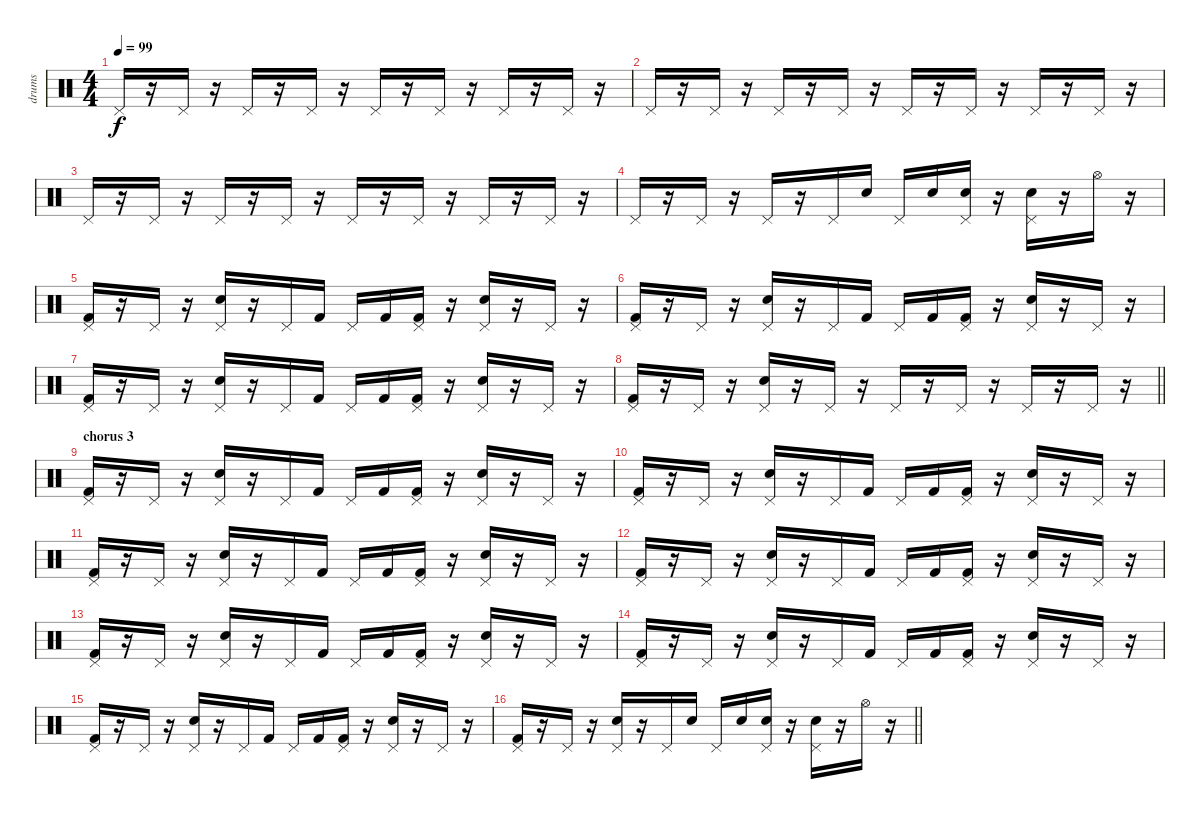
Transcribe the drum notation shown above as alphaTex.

\track ("drums" "drums") {instrument percussion}
\staff {score}
\articulation defaults
\ts (4 4)
\tempo 99
\clef neutral
\ks c "Pedal Hi-Hat (hit)".16{dy f}
r.16 "Pedal Hi-Hat (hit)".16 r.16 "Pedal Hi-Hat (hit)".16 r.16 "Pedal Hi-Hat (hit)".16 r.16 "Pedal Hi-Hat (hit)".16 r.16 "Pedal Hi-Hat (hit)".16 r.16 "Pedal Hi-Hat (hit)".16 r.16 "Pedal Hi-Hat (hit)".16 r.16 |
"Pedal Hi-Hat (hit)".16 r.16 "Pedal Hi-Hat (hit)".16 r.16 "Pedal Hi-Hat (hit)".16 r.16 "Pedal Hi-Hat (hit)".16 r.16 "Pedal Hi-Hat (hit)".16 r.16 "Pedal Hi-Hat (hit)".16 r.16 "Pedal Hi-Hat (hit)".16 r.16 "Pedal Hi-Hat (hit)".16 r.16 |
"Pedal Hi-Hat (hit)".16 r.16 "Pedal Hi-Hat (hit)".16 r.16 "Pedal Hi-Hat (hit)".16 r.16 "Pedal Hi-Hat (hit)".16 r.16 "Pedal Hi-Hat (hit)".16 r.16 "Pedal Hi-Hat (hit)".16 r.16 "Pedal Hi-Hat (hit)".16 r.16 "Pedal Hi-Hat (hit)".16 r.16 |
"Pedal Hi-Hat (hit)".16 r.16 "Pedal Hi-Hat (hit)".16 r.16 "Pedal Hi-Hat (hit)".16 r.16 "Pedal Hi-Hat (hit)".16 "Snare (hit) 2".16 "Pedal Hi-Hat (hit)".16 "Snare (hit) 2".16 ("Snare (hit) 2" "Pedal Hi-Hat (hit)").16 r.16 ("Snare (hit) 2" "Pedal Hi-Hat (hit)").16 r.16 "Hi-Hat (open)".16 r.16 |
("Kick (hit) 2" "Pedal Hi-Hat (hit)").16 r.16 "Pedal Hi-Hat (hit)".16 r.16 ("Snare (hit) 2" "Pedal Hi-Hat (hit)").16 r.16 "Pedal Hi-Hat (hit)".16 "Kick (hit) 2".16 "Pedal Hi-Hat (hit)".16 "Kick (hit) 2".16 ("Kick (hit) 2" "Pedal Hi-Hat (hit)").16 r.16 ("Snare (hit) 2" "Pedal Hi-Hat (hit)").16 r.16 "Pedal Hi-Hat (hit)".16 r.16 |
("Kick (hit) 2" "Pedal Hi-Hat (hit)").16 r.16 "Pedal Hi-Hat (hit)".16 r.16 ("Snare (hit) 2" "Pedal Hi-Hat (hit)").16 r.16 "Pedal Hi-Hat (hit)".16 "Kick (hit) 2".16 "Pedal Hi-Hat (hit)".16 "Kick (hit) 2".16 ("Kick (hit) 2" "Pedal Hi-Hat (hit)").16 r.16 ("Snare (hit) 2" "Pedal Hi-Hat (hit)").16 r.16 "Pedal Hi-Hat (hit)".16 r.16 |
("Kick (hit) 2" "Pedal Hi-Hat (hit)").16 r.16 "Pedal Hi-Hat (hit)".16 r.16 ("Snare (hit) 2" "Pedal Hi-Hat (hit)").16 r.16 "Pedal Hi-Hat (hit)".16 "Kick (hit) 2".16 "Pedal Hi-Hat (hit)".16 "Kick (hit) 2".16 ("Kick (hit) 2" "Pedal Hi-Hat (hit)").16 r.16 ("Snare (hit) 2" "Pedal Hi-Hat (hit)").16 r.16 "Pedal Hi-Hat (hit)".16 r.16 |
\barLineRight lightlight
("Kick (hit) 2" "Pedal Hi-Hat (hit)").16 r.16 "Pedal Hi-Hat (hit)".16 r.16 ("Snare (hit) 2" "Pedal Hi-Hat (hit)").16 r.16 "Pedal Hi-Hat (hit)".16 r.16 "Pedal Hi-Hat (hit)".16 r.16 "Pedal Hi-Hat (hit)".16 r.16 "Pedal Hi-Hat (hit)".16 r.16 "Pedal Hi-Hat (hit)".16 r.16 |
\section ("" "chorus 3")
("Kick (hit) 2" "Pedal Hi-Hat (hit)").16 r.16 "Pedal Hi-Hat (hit)".16 r.16 ("Snare (hit) 2" "Pedal Hi-Hat (hit)").16 r.16 "Pedal Hi-Hat (hit)".16 "Kick (hit) 2".16 "Pedal Hi-Hat (hit)".16 "Kick (hit) 2".16 ("Kick (hit) 2" "Pedal Hi-Hat (hit)").16 r.16 ("Snare (hit) 2" "Pedal Hi-Hat (hit)").16 r.16 "Pedal Hi-Hat (hit)".16 r.16 |
("Kick (hit) 2" "Pedal Hi-Hat (hit)").16 r.16 "Pedal Hi-Hat (hit)".16 r.16 ("Snare (hit) 2" "Pedal Hi-Hat (hit)").16 r.16 "Pedal Hi-Hat (hit)".16 "Kick (hit) 2".16 "Pedal Hi-Hat (hit)".16 "Kick (hit) 2".16 ("Kick (hit) 2" "Pedal Hi-Hat (hit)").16 r.16 ("Snare (hit) 2" "Pedal Hi-Hat (hit)").16 r.16 "Pedal Hi-Hat (hit)".16 r.16 |
("Kick (hit) 2" "Pedal Hi-Hat (hit)").16 r.16 "Pedal Hi-Hat (hit)".16 r.16 ("Snare (hit) 2" "Pedal Hi-Hat (hit)").16 r.16 "Pedal Hi-Hat (hit)".16 "Kick (hit) 2".16 "Pedal Hi-Hat (hit)".16 "Kick (hit) 2".16 ("Kick (hit) 2" "Pedal Hi-Hat (hit)").16 r.16 ("Snare (hit) 2" "Pedal Hi-Hat (hit)").16 r.16 "Pedal Hi-Hat (hit)".16 r.16 |
("Kick (hit) 2" "Pedal Hi-Hat (hit)").16 r.16 "Pedal Hi-Hat (hit)".16 r.16 ("Snare (hit) 2" "Pedal Hi-Hat (hit)").16 r.16 "Pedal Hi-Hat (hit)".16 "Kick (hit) 2".16 "Pedal Hi-Hat (hit)".16 "Kick (hit) 2".16 ("Kick (hit) 2" "Pedal Hi-Hat (hit)").16 r.16 ("Snare (hit) 2" "Pedal Hi-Hat (hit)").16 r.16 "Pedal Hi-Hat (hit)".16 r.16 |
("Kick (hit) 2" "Pedal Hi-Hat (hit)").16 r.16 "Pedal Hi-Hat (hit)".16 r.16 ("Snare (hit) 2" "Pedal Hi-Hat (hit)").16 r.16 "Pedal Hi-Hat (hit)".16 "Kick (hit) 2".16 "Pedal Hi-Hat (hit)".16 "Kick (hit) 2".16 ("Kick (hit) 2" "Pedal Hi-Hat (hit)").16 r.16 ("Snare (hit) 2" "Pedal Hi-Hat (hit)").16 r.16 "Pedal Hi-Hat (hit)".16 r.16 |
("Kick (hit) 2" "Pedal Hi-Hat (hit)").16 r.16 "Pedal Hi-Hat (hit)".16 r.16 ("Snare (hit) 2" "Pedal Hi-Hat (hit)").16 r.16 "Pedal Hi-Hat (hit)".16 "Kick (hit) 2".16 "Pedal Hi-Hat (hit)".16 "Kick (hit) 2".16 ("Kick (hit) 2" "Pedal Hi-Hat (hit)").16 r.16 ("Snare (hit) 2" "Pedal Hi-Hat (hit)").16 r.16 "Pedal Hi-Hat (hit)".16 r.16 |
("Kick (hit) 2" "Pedal Hi-Hat (hit)").16 r.16 "Pedal Hi-Hat (hit)".16 r.16 ("Snare (hit) 2" "Pedal Hi-Hat (hit)").16 r.16 "Pedal Hi-Hat (hit)".16 "Kick (hit) 2".16 "Pedal Hi-Hat (hit)".16 "Kick (hit) 2".16 ("Kick (hit) 2" "Pedal Hi-Hat (hit)").16 r.16 ("Snare (hit) 2" "Pedal Hi-Hat (hit)").16 r.16 "Pedal Hi-Hat (hit)".16 r.16 |
\barLineRight lightlight
("Kick (hit) 2" "Pedal Hi-Hat (hit)").16 r.16 "Pedal Hi-Hat (hit)".16 r.16 ("Snare (hit) 2" "Pedal Hi-Hat (hit)").16 r.16 "Pedal Hi-Hat (hit)".16 "Snare (hit) 2".16 "Pedal Hi-Hat (hit)".16 "Snare (hit) 2".16 ("Snare (hit) 2" "Pedal Hi-Hat (hit)").16 r.16 ("Snare (hit) 2" "Pedal Hi-Hat (hit)").16 r.16 "Hi-Hat (open)".16 r.16
